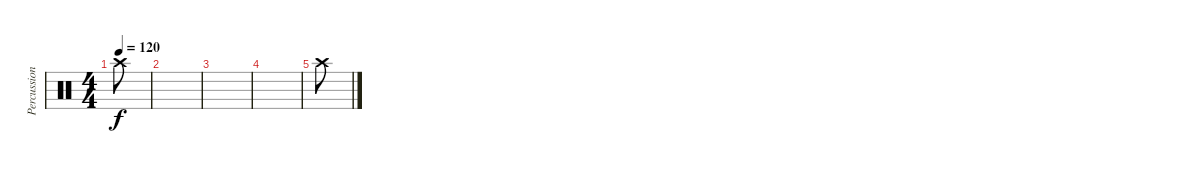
\track ("Percussion" "Percussion") {instrument percussion}
\staff {score}
\articulation defaults
\ts (4 4)
\tempo 120
\clef neutral
\ks c "Crash high (hit)".8{dy f}
|
|
|
|
"Crash high (hit)".8
